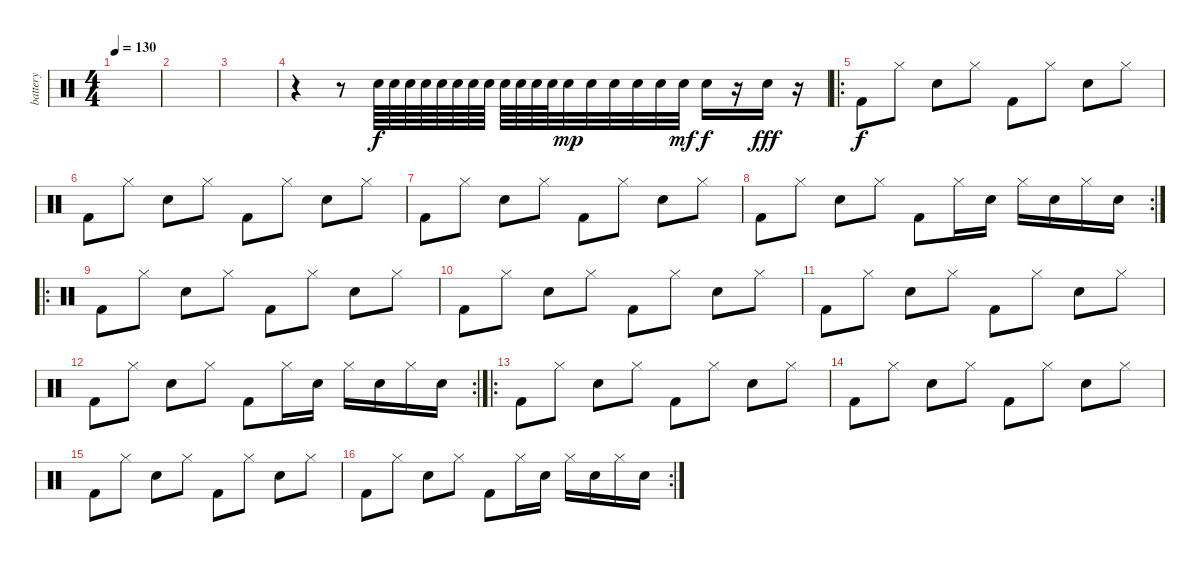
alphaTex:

\track ("battery" "battery") {instrument percussion}
\staff {score}
\articulation defaults
\ts (4 4)
\tempo 130
\clef neutral
\ks c
|
|
|
r.4 r.8 "Electric Snare (hit)".64 "Electric Snare (hit)".64 "Electric Snare (hit)".64 "Electric Snare (hit)".64 "Electric Snare (hit)".64 "Electric Snare (hit)".64 "Electric Snare (hit)".64 "Electric Snare (hit)".64 "Electric Snare (hit)".64 "Electric Snare (hit)".64 "Electric Snare (hit)".64 "Electric Snare (hit)".64 "Electric Snare (hit)".32{dy mp} "Electric Snare (hit)".32 "Electric Snare (hit)".32 "Electric Snare (hit)".32 "Electric Snare (hit)".32 "Electric Snare (hit)".32{dy mf} "Electric Snare (hit)".16{dy f} r.16 "Electric Snare (hit)".16{dy fff} r.16 |
\ro "Kick (hit) 2".8{dy f} "Hi-Hat (closed)".8 "Electric Snare (hit)".8 "Hi-Hat (closed)".8 "Kick (hit) 2".8 "Hi-Hat (closed)".8 "Electric Snare (hit)".8 "Hi-Hat (closed)".8
|
"Kick (hit) 2".8 "Hi-Hat (closed)".8 "Electric Snare (hit)".8 "Hi-Hat (closed)".8 "Kick (hit) 2".8 "Hi-Hat (closed)".8 "Electric Snare (hit)".8 "Hi-Hat (closed)".8 |
"Kick (hit) 2".8 "Hi-Hat (closed)".8 "Electric Snare (hit)".8 "Hi-Hat (closed)".8 "Kick (hit) 2".8 "Hi-Hat (closed)".8 "Electric Snare (hit)".8 "Hi-Hat (closed)".8 |
\rc 2 "Kick (hit) 2".8 "Hi-Hat (closed)".8 "Electric Snare (hit)".8 "Hi-Hat (closed)".8 "Kick (hit) 2".8 "Hi-Hat (closed)".16 "Electric Snare (hit)".16 "Hi-Hat (closed)".16 "Electric Snare (hit)".16 "Hi-Hat (closed)".16 "Electric Snare (hit)".16
|
\ro "Kick (hit) 2".8 "Hi-Hat (closed)".8 "Electric Snare (hit)".8 "Hi-Hat (closed)".8 "Kick (hit) 2".8 "Hi-Hat (closed)".8 "Electric Snare (hit)".8 "Hi-Hat (closed)".8
|
"Kick (hit) 2".8 "Hi-Hat (closed)".8 "Electric Snare (hit)".8 "Hi-Hat (closed)".8 "Kick (hit) 2".8 "Hi-Hat (closed)".8 "Electric Snare (hit)".8 "Hi-Hat (closed)".8 |
"Kick (hit) 2".8 "Hi-Hat (closed)".8 "Electric Snare (hit)".8 "Hi-Hat (closed)".8 "Kick (hit) 2".8 "Hi-Hat (closed)".8 "Electric Snare (hit)".8 "Hi-Hat (closed)".8 |
\rc 2 "Kick (hit) 2".8 "Hi-Hat (closed)".8 "Electric Snare (hit)".8 "Hi-Hat (closed)".8 "Kick (hit) 2".8 "Hi-Hat (closed)".16 "Electric Snare (hit)".16 "Hi-Hat (closed)".16 "Electric Snare (hit)".16 "Hi-Hat (closed)".16 "Electric Snare (hit)".16
|
\ro "Kick (hit) 2".8 "Hi-Hat (closed)".8 "Electric Snare (hit)".8 "Hi-Hat (closed)".8 "Kick (hit) 2".8 "Hi-Hat (closed)".8 "Electric Snare (hit)".8 "Hi-Hat (closed)".8
|
"Kick (hit) 2".8 "Hi-Hat (closed)".8 "Electric Snare (hit)".8 "Hi-Hat (closed)".8 "Kick (hit) 2".8 "Hi-Hat (closed)".8 "Electric Snare (hit)".8 "Hi-Hat (closed)".8 |
"Kick (hit) 2".8 "Hi-Hat (closed)".8 "Electric Snare (hit)".8 "Hi-Hat (closed)".8 "Kick (hit) 2".8 "Hi-Hat (closed)".8 "Electric Snare (hit)".8 "Hi-Hat (closed)".8 |
\rc 2 "Kick (hit) 2".8 "Hi-Hat (closed)".8 "Electric Snare (hit)".8 "Hi-Hat (closed)".8 "Kick (hit) 2".8 "Hi-Hat (closed)".16 "Electric Snare (hit)".16 "Hi-Hat (closed)".16 "Electric Snare (hit)".16 "Hi-Hat (closed)".16 "Electric Snare (hit)".16
